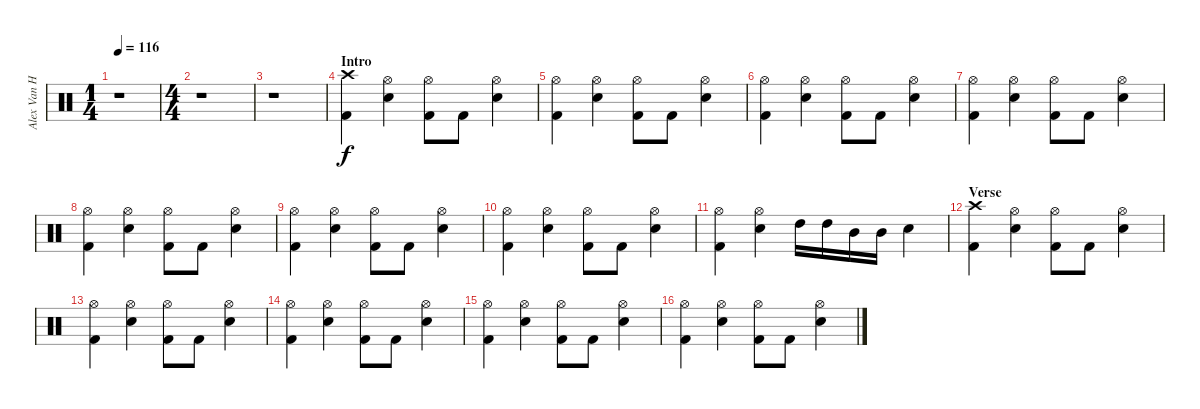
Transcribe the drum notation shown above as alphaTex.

\track ("Alex Van Halen" "Alex Van H") {instrument percussion}
\staff {score}
\articulation defaults
\ts (1 4)
\tempo 116
\clef neutral
\ks c
r.1{dy f} |
\ts (4 4)
r.1 |
r.1 |
\section ("" "Intro")
("Crash high (hit)" "Kick (hit) 2").4 ("Hi-Hat (open)" "Electric Snare (hit)").4 ("Hi-Hat (open)" "Kick (hit) 2").8 "Kick (hit) 2".8 ("Hi-Hat (open)" "Electric Snare (hit)").4 |
("Hi-Hat (open)" "Kick (hit) 2").4 ("Hi-Hat (open)" "Electric Snare (hit)").4 ("Hi-Hat (open)" "Kick (hit) 2").8 "Kick (hit) 2".8 ("Hi-Hat (open)" "Electric Snare (hit)").4 |
("Hi-Hat (open)" "Kick (hit) 2").4 ("Hi-Hat (open)" "Electric Snare (hit)").4 ("Hi-Hat (open)" "Kick (hit) 2").8 "Kick (hit) 2".8 ("Hi-Hat (open)" "Electric Snare (hit)").4 |
("Hi-Hat (open)" "Kick (hit) 2").4 ("Hi-Hat (open)" "Electric Snare (hit)").4 ("Hi-Hat (open)" "Kick (hit) 2").8 "Kick (hit) 2".8 ("Hi-Hat (open)" "Electric Snare (hit)").4 |
("Hi-Hat (open)" "Kick (hit) 2").4 ("Hi-Hat (open)" "Electric Snare (hit)").4 ("Hi-Hat (open)" "Kick (hit) 2").8 "Kick (hit) 2".8 ("Hi-Hat (open)" "Electric Snare (hit)").4 |
("Hi-Hat (open)" "Kick (hit) 2").4 ("Hi-Hat (open)" "Electric Snare (hit)").4 ("Hi-Hat (open)" "Kick (hit) 2").8 "Kick (hit) 2".8 ("Hi-Hat (open)" "Electric Snare (hit)").4 |
("Hi-Hat (open)" "Kick (hit) 2").4 ("Hi-Hat (open)" "Electric Snare (hit)").4 ("Hi-Hat (open)" "Kick (hit) 2").8 "Kick (hit) 2".8 ("Hi-Hat (open)" "Electric Snare (hit)").4 |
("Hi-Hat (open)" "Kick (hit) 2").4 ("Hi-Hat (open)" "Electric Snare (hit)").4 "High Tom (hit)".16 "High Tom (hit)".16 "Mid Tom (hit)".16 "Mid Tom (hit)".16 "Electric Snare (hit)".4 |
\section ("" "Verse")
("Crash high (hit)" "Kick (hit) 2").4 ("Hi-Hat (open)" "Electric Snare (hit)").4 ("Hi-Hat (open)" "Kick (hit) 2").8 "Kick (hit) 2".8 ("Hi-Hat (open)" "Electric Snare (hit)").4 |
("Hi-Hat (open)" "Kick (hit) 2").4 ("Hi-Hat (open)" "Electric Snare (hit)").4 ("Hi-Hat (open)" "Kick (hit) 2").8 "Kick (hit) 2".8 ("Hi-Hat (open)" "Electric Snare (hit)").4 |
("Hi-Hat (open)" "Kick (hit) 2").4 ("Hi-Hat (open)" "Electric Snare (hit)").4 ("Hi-Hat (open)" "Kick (hit) 2").8 "Kick (hit) 2".8 ("Hi-Hat (open)" "Electric Snare (hit)").4 |
("Hi-Hat (open)" "Kick (hit) 2").4 ("Hi-Hat (open)" "Electric Snare (hit)").4 ("Hi-Hat (open)" "Kick (hit) 2").8 "Kick (hit) 2".8 ("Hi-Hat (open)" "Electric Snare (hit)").4 |
("Hi-Hat (open)" "Kick (hit) 2").4 ("Hi-Hat (open)" "Electric Snare (hit)").4 ("Hi-Hat (open)" "Kick (hit) 2").8 "Kick (hit) 2".8 ("Hi-Hat (open)" "Electric Snare (hit)").4
